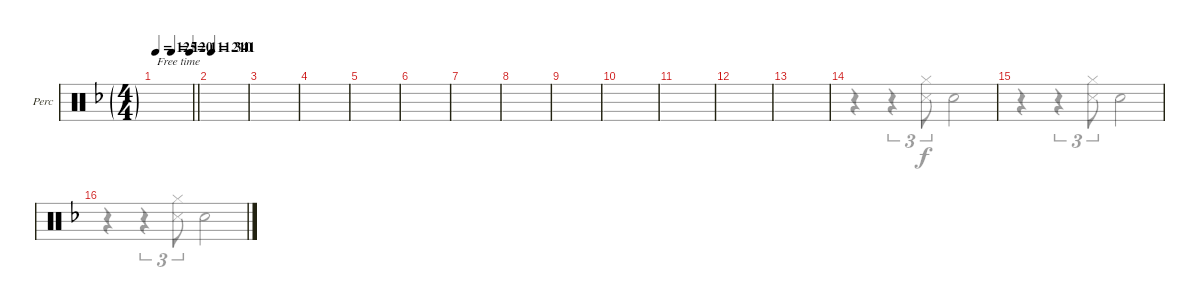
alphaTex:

\defaultSystemsLayout 4
\bracketExtendMode groupsimilarinstruments
\firstSystemTrackNameOrientation horizontal
\otherSystemsTrackNameOrientation horizontal
\track ("Body Percussion" "Perc") {instrument percussion}
\staff {score}
\articulation defaults
\voice
\ts (4 4)
\ft
\tempo 125
\tempo (120 0.4375)
\tempo (111.341 0.94375)
\clef neutral
\barLineRight lightlight
\ks dminor
|
\scale
0.597143
\tempo 210
|
\scale
0.402816 |
\scale
0.374841 |
\scale
0.329919 |
\scale
0.295226 |
|
|
|
|
|
|
|
|
|
\voice
\clef neutral
\ottava regular
\simile none
\barLineRight lightlight
\ks dminor
|
|
|
|
|
|
|
|
|
|
|
|
|
r.4{beam Down} r.4{tu (3 2) beam Down} ("Snare (side stick) 3"{acc forcenatural} "Hi-Hat (closed)"{acc forcenatural}).8{tu (3 2) beam Down} "Snare (hit) 2"{acc forcenatural}.2{beam Down} |
r.4{beam Down} r.4{tu (3 2) beam Down} ("Snare (side stick) 3"{acc forcenatural} "Hi-Hat (closed)"{acc forcenatural}).8{tu (3 2) beam Down} "Snare (hit) 2"{acc forcenatural}.2{beam Down} |
r.4{beam Down} r.4{tu (3 2) beam Down} ("Snare (side stick) 3"{acc forcenatural} "Hi-Hat (closed)"{acc forcenatural}).8{tu (3 2) beam Down} "Snare (hit) 2"{acc forcenatural}.2{beam Down}
